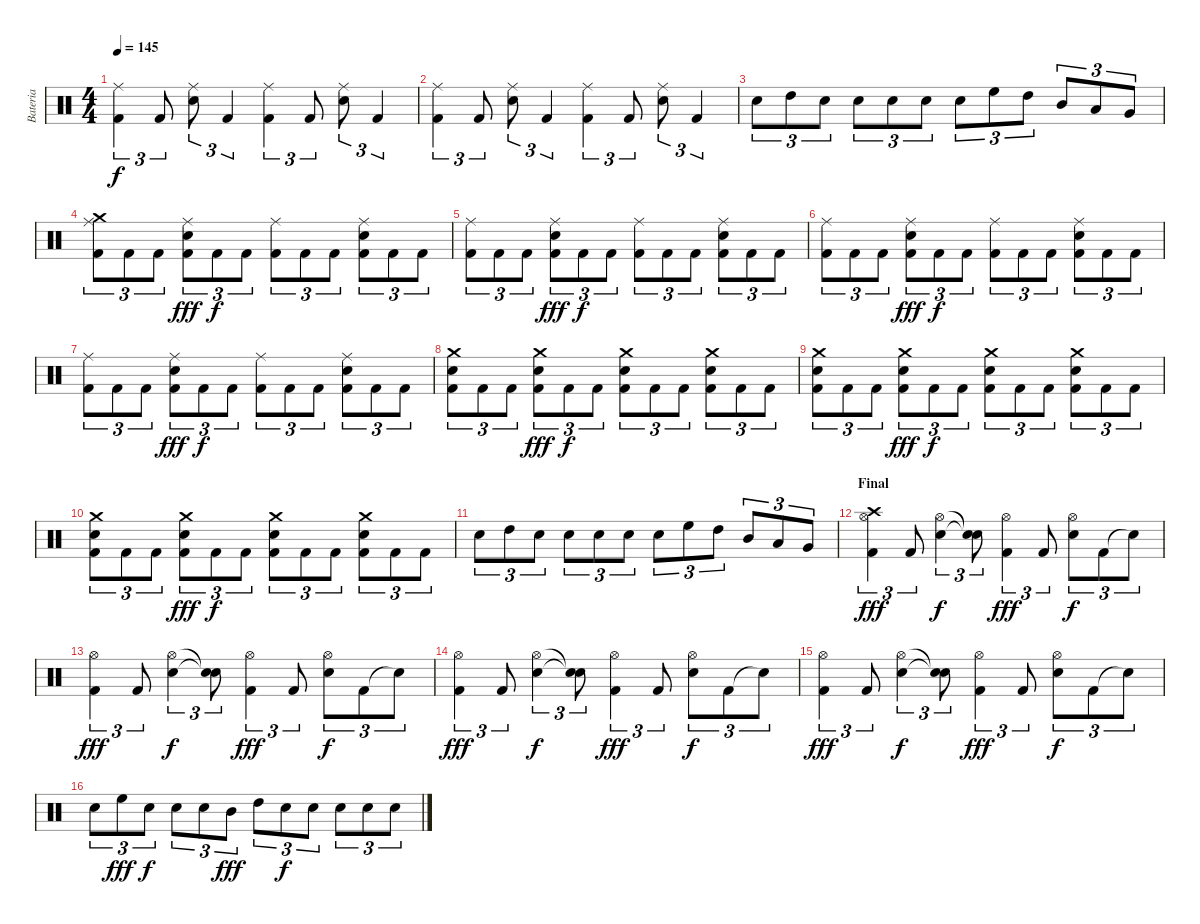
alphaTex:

\track ("Bateria" "Bateria") {instrument percussion}
\staff {score}
\articulation defaults
\ts (4 4)
\tempo 145
\clef neutral
\ks c
("Ride (middle)" "Kick (hit) 2").4{tu (3 2) dy f} "Kick (hit) 2".8{tu (3 2)} ("Ride (middle)" "Snare (hit) 2").8{tu (3 2)} "Kick (hit) 2".4{tu (3 2)} ("Ride (middle)" "Kick (hit) 2").4{tu (3 2)} "Kick (hit) 2".8{tu (3 2)} ("Ride (middle)" "Snare (hit) 2").8{tu (3 2)} "Kick (hit) 2".4{tu (3 2)} |
("Ride (middle)" "Kick (hit) 2").4{tu (3 2)} "Kick (hit) 2".8{tu (3 2)} ("Ride (middle)" "Snare (hit) 2").8{tu (3 2)} "Kick (hit) 2".4{tu (3 2)} ("Ride (middle)" "Kick (hit) 2").4{tu (3 2)} "Kick (hit) 2".8{tu (3 2)} ("Ride (middle)" "Snare (hit) 2").8{tu (3 2)} "Kick (hit) 2".4{tu (3 2)} |
"Snare (hit) 2".8{tu (3 2)} "High Tom (hit)".8{tu (3 2)} "Snare (hit) 2".8{tu (3 2)} "Snare (hit) 2".8{tu (3 2)} "Snare (hit) 2".8{tu (3 2)} "Snare (hit) 2".8{tu (3 2)} "Snare (hit) 2".8{tu (3 2)} "High Floor Tom (hit)".8{tu (3 2)} "High Tom (hit)".8{tu (3 2)} "Mid Tom (hit)".8{tu (3 2)} "Low Tom (hit)".8{tu (3 2)} "Very Low Tom (hit)".8{tu (3 2)} |
("Ride (middle)" "Crash medium (hit)" "Kick (hit) 2").8{tu (3 2)} "Kick (hit) 2".8{tu (3 2)} "Kick (hit) 2".8{tu (3 2)} ("Ride (middle)" "Snare (hit) 2" "Kick (hit) 2").8{tu (3 2) dy fff} "Kick (hit) 2".8{tu (3 2) dy f} "Kick (hit) 2".8{tu (3 2)} ("Ride (middle)" "Kick (hit) 2").8{tu (3 2)} "Kick (hit) 2".8{tu (3 2)} "Kick (hit) 2".8{tu (3 2)} ("Snare (hit) 2" "Ride (middle)" "Kick (hit) 2").8{tu (3 2)} "Kick (hit) 2".8{tu (3 2)} "Kick (hit) 2".8{tu (3 2)} |
("Ride (middle)" "Kick (hit) 2").8{tu (3 2)} "Kick (hit) 2".8{tu (3 2)} "Kick (hit) 2".8{tu (3 2)} ("Ride (middle)" "Snare (hit) 2" "Kick (hit) 2").8{tu (3 2) dy fff} "Kick (hit) 2".8{tu (3 2) dy f} "Kick (hit) 2".8{tu (3 2)} ("Ride (middle)" "Kick (hit) 2").8{tu (3 2)} "Kick (hit) 2".8{tu (3 2)} "Kick (hit) 2".8{tu (3 2)} ("Snare (hit) 2" "Ride (middle)" "Kick (hit) 2").8{tu (3 2)} "Kick (hit) 2".8{tu (3 2)} "Kick (hit) 2".8{tu (3 2)} |
("Ride (middle)" "Kick (hit) 2").8{tu (3 2)} "Kick (hit) 2".8{tu (3 2)} "Kick (hit) 2".8{tu (3 2)} ("Ride (middle)" "Snare (hit) 2" "Kick (hit) 2").8{tu (3 2) dy fff} "Kick (hit) 2".8{tu (3 2) dy f} "Kick (hit) 2".8{tu (3 2)} ("Ride (middle)" "Kick (hit) 2").8{tu (3 2)} "Kick (hit) 2".8{tu (3 2)} "Kick (hit) 2".8{tu (3 2)} ("Snare (hit) 2" "Ride (middle)" "Kick (hit) 2").8{tu (3 2)} "Kick (hit) 2".8{tu (3 2)} "Kick (hit) 2".8{tu (3 2)} |
("Ride (middle)" "Kick (hit) 2").8{tu (3 2)} "Kick (hit) 2".8{tu (3 2)} "Kick (hit) 2".8{tu (3 2)} ("Ride (middle)" "Snare (hit) 2" "Kick (hit) 2").8{tu (3 2) dy fff} "Kick (hit) 2".8{tu (3 2) dy f} "Kick (hit) 2".8{tu (3 2)} ("Ride (middle)" "Kick (hit) 2").8{tu (3 2)} "Kick (hit) 2".8{tu (3 2)} "Kick (hit) 2".8{tu (3 2)} ("Snare (hit) 2" "Ride (middle)" "Kick (hit) 2").8{tu (3 2)} "Kick (hit) 2".8{tu (3 2)} "Kick (hit) 2".8{tu (3 2)} |
("Snare (hit) 2" "Crash medium (hit)" "Kick (hit) 2").8{tu (3 2)} "Kick (hit) 2".8{tu (3 2)} "Kick (hit) 2".8{tu (3 2)} ("Snare (hit) 2" "Crash medium (hit)" "Kick (hit) 2").8{tu (3 2) dy fff} "Kick (hit) 2".8{tu (3 2) dy f} "Kick (hit) 2".8{tu (3 2)} ("Snare (hit) 2" "Crash medium (hit)" "Kick (hit) 2").8{tu (3 2)} "Kick (hit) 2".8{tu (3 2)} "Kick (hit) 2".8{tu (3 2)} ("Snare (hit) 2" "Crash medium (hit)" "Kick (hit) 2").8{tu (3 2)} "Kick (hit) 2".8{tu (3 2)} "Kick (hit) 2".8{tu (3 2)} |
("Snare (hit) 2" "Crash medium (hit)" "Kick (hit) 2").8{tu (3 2)} "Kick (hit) 2".8{tu (3 2)} "Kick (hit) 2".8{tu (3 2)} ("Snare (hit) 2" "Crash medium (hit)" "Kick (hit) 2").8{tu (3 2) dy fff} "Kick (hit) 2".8{tu (3 2) dy f} "Kick (hit) 2".8{tu (3 2)} ("Snare (hit) 2" "Crash medium (hit)" "Kick (hit) 2").8{tu (3 2)} "Kick (hit) 2".8{tu (3 2)} "Kick (hit) 2".8{tu (3 2)} ("Snare (hit) 2" "Crash medium (hit)" "Kick (hit) 2").8{tu (3 2)} "Kick (hit) 2".8{tu (3 2)} "Kick (hit) 2".8{tu (3 2)} |
("Snare (hit) 2" "Crash medium (hit)" "Kick (hit) 2").8{tu (3 2)} "Kick (hit) 2".8{tu (3 2)} "Kick (hit) 2".8{tu (3 2)} ("Snare (hit) 2" "Crash medium (hit)" "Kick (hit) 2").8{tu (3 2) dy fff} "Kick (hit) 2".8{tu (3 2) dy f} "Kick (hit) 2".8{tu (3 2)} ("Snare (hit) 2" "Crash medium (hit)" "Kick (hit) 2").8{tu (3 2)} "Kick (hit) 2".8{tu (3 2)} "Kick (hit) 2".8{tu (3 2)} ("Snare (hit) 2" "Crash medium (hit)" "Kick (hit) 2").8{tu (3 2)} "Kick (hit) 2".8{tu (3 2)} "Kick (hit) 2".8{tu (3 2)} |
"Snare (hit) 2".8{tu (3 2)} "High Tom (hit)".8{tu (3 2)} "Snare (hit) 2".8{tu (3 2)} "Snare (hit) 2".8{tu (3 2)} "Snare (hit) 2".8{tu (3 2)} "Snare (hit) 2".8{tu (3 2)} "Snare (hit) 2".8{tu (3 2)} "High Floor Tom (hit)".8{tu (3 2)} "High Tom (hit)".8{tu (3 2)} "Mid Tom (hit)".8{tu (3 2)} "Low Tom (hit)".8{tu (3 2)} "Very Low Tom (hit)".8{tu (3 2)} |
\section ("" "Final")
("Hi-Hat (open)" "Kick (hit) 2" "Crash high (hit)").4{tu (3 2) dy fff} "Kick (hit) 2".8{tu (3 2)} ("Hi-Hat (open)" "Snare (hit) 2").4{tu (3 2) dy f} ("Snare (hit)"{t} "Snare (hit)"{t}).8{tu (3 2)} ("Hi-Hat (open)" "Kick (hit) 2").4{tu (3 2) dy fff} "Kick (hit) 2".8{tu (3 2)} ("Hi-Hat (open)" "Snare (hit) 2").8{tu (3 2) dy f} "Kick (hit) 2".8{tu (3 2)} "Snare (hit)"{t}.8{tu (3 2)} |
("Hi-Hat (open)" "Kick (hit) 2").4{tu (3 2) dy fff} "Kick (hit) 2".8{tu (3 2)} ("Hi-Hat (open)" "Snare (hit) 2").4{tu (3 2) dy f} ("Snare (hit)"{t} "Snare (hit)"{t}).8{tu (3 2)} ("Hi-Hat (open)" "Kick (hit) 2").4{tu (3 2) dy fff} "Kick (hit) 2".8{tu (3 2)} ("Hi-Hat (open)" "Snare (hit) 2").8{tu (3 2) dy f} "Kick (hit) 2".8{tu (3 2)} "Snare (hit)"{t}.8{tu (3 2)} |
("Hi-Hat (open)" "Kick (hit) 2").4{tu (3 2) dy fff} "Kick (hit) 2".8{tu (3 2)} ("Hi-Hat (open)" "Snare (hit) 2").4{tu (3 2) dy f} ("Snare (hit)"{t} "Snare (hit)"{t}).8{tu (3 2)} ("Hi-Hat (open)" "Kick (hit) 2").4{tu (3 2) dy fff} "Kick (hit) 2".8{tu (3 2)} ("Hi-Hat (open)" "Snare (hit) 2").8{tu (3 2) dy f} "Kick (hit) 2".8{tu (3 2)} "Snare (hit)"{t}.8{tu (3 2)} |
("Hi-Hat (open)" "Kick (hit) 2").4{tu (3 2) dy fff} "Kick (hit) 2".8{tu (3 2)} ("Hi-Hat (open)" "Snare (hit) 2").4{tu (3 2) dy f} ("Snare (hit)"{t} "Snare (hit)"{t}).8{tu (3 2)} ("Hi-Hat (open)" "Kick (hit) 2").4{tu (3 2) dy fff} "Kick (hit) 2".8{tu (3 2)} ("Hi-Hat (open)" "Snare (hit) 2").8{tu (3 2) dy f} "Kick (hit) 2".8{tu (3 2)} "Snare (hit)"{t}.8{tu (3 2)} |
"Snare (hit) 2".8{tu (3 2)} "High Floor Tom (hit)".8{tu (3 2) dy fff} "Snare (hit) 2".8{tu (3 2) dy f} "Snare (hit) 2".8{tu (3 2)} "Snare (hit) 2".8{tu (3 2)} "Mid Tom (hit)".8{tu (3 2) dy fff} "High Tom (hit)".8{tu (3 2)} "Snare (hit) 2".8{tu (3 2) dy f} "Snare (hit) 2".8{tu (3 2)} "Snare (hit) 2".8{tu (3 2)} "Snare (hit) 2".8{tu (3 2)} "Snare (hit) 2".8{tu (3 2)}
